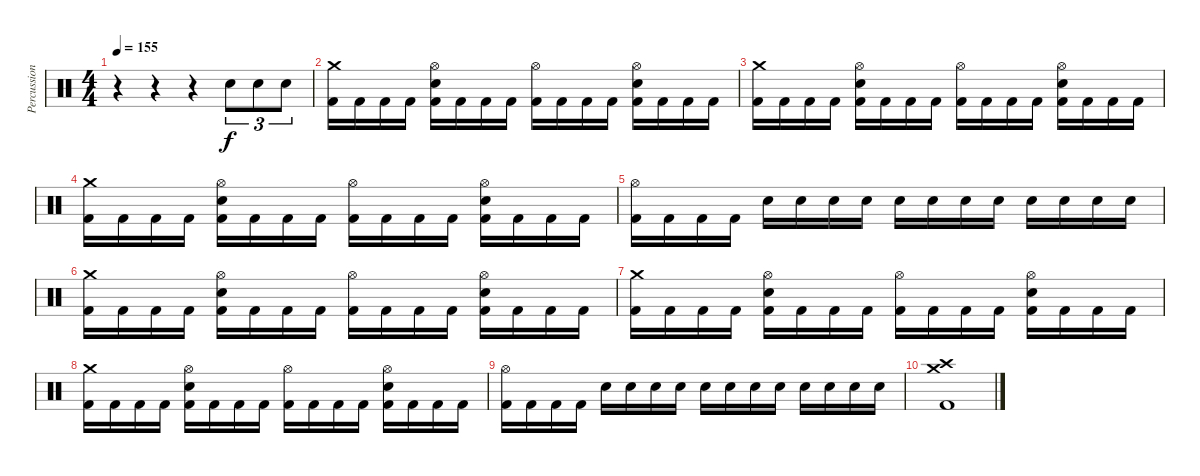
\track ("Percussion" "Percussion") {instrument percussion}
\staff {score}
\articulation defaults
\ts (4 4)
\tempo 155
\clef neutral
\ks c
r.4{dy f} r.4 r.4 "Snare (hit) 2".8{tu (3 2)} "Snare (hit) 2".8{tu (3 2)} "Snare (hit) 2".8{tu (3 2)} |
("Kick (hit) 2" "Crash medium (hit)").16 "Kick (hit) 2".16 "Kick (hit) 2".16 "Kick (hit) 2".16 ("Kick (hit) 2" "Snare (hit) 2" "Hi-Hat (open)").16 "Kick (hit) 2".16 "Kick (hit) 2".16 "Kick (hit) 2".16 ("Kick (hit) 2" "Hi-Hat (open)").16 "Kick (hit) 2".16 "Kick (hit) 2".16 "Kick (hit) 2".16 ("Kick (hit) 2" "Snare (hit) 2" "Hi-Hat (open)").16 "Kick (hit) 2".16 "Kick (hit) 2".16 "Kick (hit) 2".16 |
("Kick (hit) 2" "Crash medium (hit)").16 "Kick (hit) 2".16 "Kick (hit) 2".16 "Kick (hit) 2".16 ("Kick (hit) 2" "Snare (hit) 2" "Hi-Hat (open)").16 "Kick (hit) 2".16 "Kick (hit) 2".16 "Kick (hit) 2".16 ("Kick (hit) 2" "Hi-Hat (open)").16 "Kick (hit) 2".16 "Kick (hit) 2".16 "Kick (hit) 2".16 ("Kick (hit) 2" "Snare (hit) 2" "Hi-Hat (open)").16 "Kick (hit) 2".16 "Kick (hit) 2".16 "Kick (hit) 2".16 |
("Kick (hit) 2" "Crash medium (hit)").16 "Kick (hit) 2".16 "Kick (hit) 2".16 "Kick (hit) 2".16 ("Kick (hit) 2" "Snare (hit) 2" "Hi-Hat (open)").16 "Kick (hit) 2".16 "Kick (hit) 2".16 "Kick (hit) 2".16 ("Kick (hit) 2" "Hi-Hat (open)").16 "Kick (hit) 2".16 "Kick (hit) 2".16 "Kick (hit) 2".16 ("Kick (hit) 2" "Snare (hit) 2" "Hi-Hat (open)").16 "Kick (hit) 2".16 "Kick (hit) 2".16 "Kick (hit) 2".16 |
("Kick (hit) 2" "Hi-Hat (open)").16 "Kick (hit) 2".16 "Kick (hit) 2".16 "Kick (hit) 2".16 "Snare (hit) 2".16 "Snare (hit) 2".16 "Snare (hit) 2".16 "Snare (hit) 2".16 "Snare (hit) 2".16 "Snare (hit) 2".16 "Snare (hit) 2".16 "Snare (hit) 2".16 "Snare (hit) 2".16 "Snare (hit) 2".16 "Snare (hit) 2".16 "Snare (hit) 2".16 |
("Kick (hit) 2" "Crash medium (hit)").16 "Kick (hit) 2".16 "Kick (hit) 2".16 "Kick (hit) 2".16 ("Kick (hit) 2" "Snare (hit) 2" "Hi-Hat (open)").16 "Kick (hit) 2".16 "Kick (hit) 2".16 "Kick (hit) 2".16 ("Kick (hit) 2" "Hi-Hat (open)").16 "Kick (hit) 2".16 "Kick (hit) 2".16 "Kick (hit) 2".16 ("Kick (hit) 2" "Snare (hit) 2" "Hi-Hat (open)").16 "Kick (hit) 2".16 "Kick (hit) 2".16 "Kick (hit) 2".16 |
("Kick (hit) 2" "Crash medium (hit)").16 "Kick (hit) 2".16 "Kick (hit) 2".16 "Kick (hit) 2".16 ("Kick (hit) 2" "Snare (hit) 2" "Hi-Hat (open)").16 "Kick (hit) 2".16 "Kick (hit) 2".16 "Kick (hit) 2".16 ("Kick (hit) 2" "Hi-Hat (open)").16 "Kick (hit) 2".16 "Kick (hit) 2".16 "Kick (hit) 2".16 ("Kick (hit) 2" "Snare (hit) 2" "Hi-Hat (open)").16 "Kick (hit) 2".16 "Kick (hit) 2".16 "Kick (hit) 2".16 |
("Kick (hit) 2" "Crash medium (hit)").16 "Kick (hit) 2".16 "Kick (hit) 2".16 "Kick (hit) 2".16 ("Kick (hit) 2" "Snare (hit) 2" "Hi-Hat (open)").16 "Kick (hit) 2".16 "Kick (hit) 2".16 "Kick (hit) 2".16 ("Kick (hit) 2" "Hi-Hat (open)").16 "Kick (hit) 2".16 "Kick (hit) 2".16 "Kick (hit) 2".16 ("Kick (hit) 2" "Snare (hit) 2" "Hi-Hat (open)").16 "Kick (hit) 2".16 "Kick (hit) 2".16 "Kick (hit) 2".16 |
("Kick (hit) 2" "Hi-Hat (open)").16 "Kick (hit) 2".16 "Kick (hit) 2".16 "Kick (hit) 2".16 "Snare (hit) 2".16 "Snare (hit) 2".16 "Snare (hit) 2".16 "Snare (hit) 2".16 "Snare (hit) 2".16 "Snare (hit) 2".16 "Snare (hit) 2".16 "Snare (hit) 2".16 "Snare (hit) 2".16 "Snare (hit) 2".16 "Snare (hit) 2".16 "Snare (hit) 2".16 |
("Kick (hit) 2" "Crash high (hit)" "Crash medium (hit)").1
